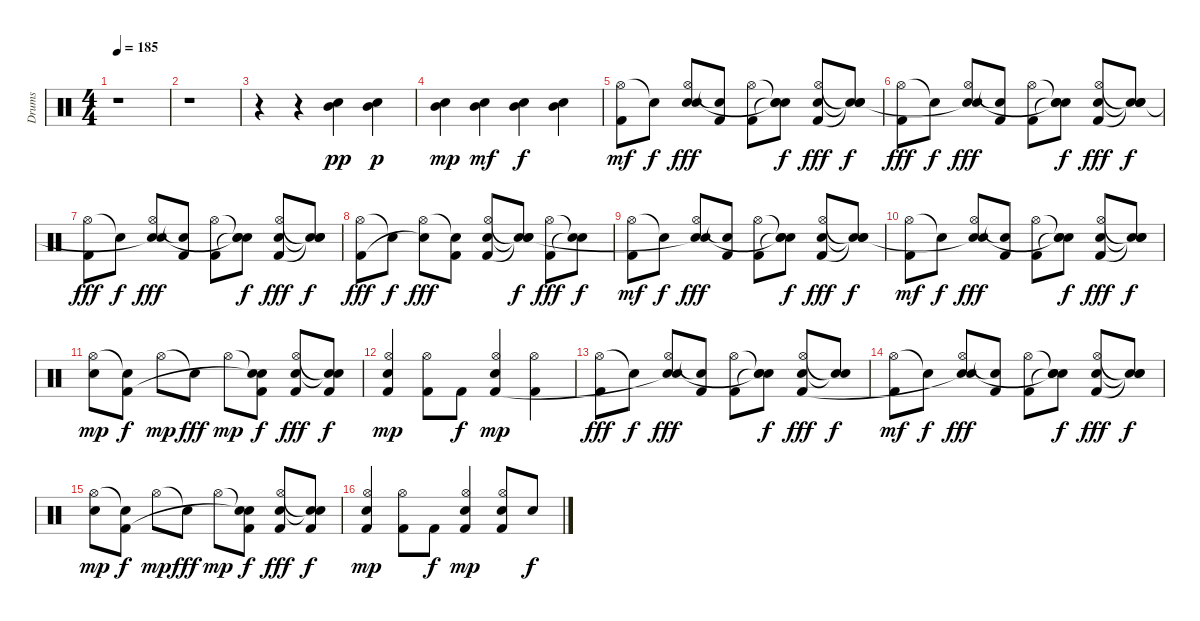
\track ("Drums" "Drums") {instrument percussion}
\staff {score}
\articulation defaults
\ts (4 4)
\tempo 185
\clef neutral
\ks c
r.1{dy f} |
r.1 |
r.4 r.4 ("Electric Snare (hit)" "Mid Tom (hit)").4{dy pp} ("Electric Snare (hit)" "Mid Tom (hit)").4{dy p} |
("Electric Snare (hit)" "Mid Tom (hit)").4{dy mp} ("Electric Snare (hit)" "Mid Tom (hit)").4{dy mf} ("Electric Snare (hit)" "Mid Tom (hit)").4{dy f} ("Electric Snare (hit)" "Mid Tom (hit)").4 |
("Hi-Hat (open)" "Kick (hit) 2").8{dy mf} "Snare (hit)"{t}.8{dy f} ("Hi-Hat (open)" "Electric Snare (hit)" "Snare (hit)").8{dy fff} ("Snare (hit)"{t} "Kick (hit) 2").8 ("Hi-Hat (open)" "Kick (hit) 2").8 ("Snare (hit)"{t} "Snare (hit)"{t} "Snare (hit)"{t}).8{dy f} ("Hi-Hat (open)" "Electric Snare (hit)" "Kick (hit) 2").8{dy fff} ("Snare (hit)"{t} "Snare (hit)"{t} "Snare (hit)"{t}).8{dy f} |
("Hi-Hat (open)" "Kick (hit) 2").8{dy fff} "Snare (hit)"{t}.8{dy f} ("Hi-Hat (open)" "Electric Snare (hit)" "Snare (hit)"{t}).8{dy fff} ("Snare (hit)"{t} "Kick (hit) 2").8 ("Hi-Hat (open)" "Kick (hit) 2").8 ("Snare (hit)"{t} "Snare (hit)"{t} "Snare (hit)"{t}).8{dy f} ("Hi-Hat (open)" "Electric Snare (hit)" "Kick (hit) 2").8{dy fff} ("Snare (hit)"{t} "Snare (hit)"{t} "Snare (hit)"{t}).8{dy f} |
("Hi-Hat (open)" "Kick (hit) 2").8{dy fff} "Snare (hit)"{t}.8{dy f} ("Hi-Hat (open)" "Electric Snare (hit)" "Snare (hit)"{t}).8{dy fff} ("Snare (hit)"{t} "Kick (hit) 2").8 ("Hi-Hat (open)" "Kick (hit) 2").8 ("Snare (hit)"{t} "Snare (hit)"{t} "Snare (hit)"{t}).8{dy f} ("Hi-Hat (open)" "Electric Snare (hit)" "Kick (hit) 2").8{dy fff} ("Snare (hit)"{t} "Snare (hit)"{t} "Snare (hit)"{t}).8{dy f} |
("Hi-Hat (open)" "Kick (hit) 2").8{dy fff} "Snare (hit)"{t}.8{dy f} ("Hi-Hat (open)" "Snare (hit)"{t}).8{dy fff} ("Snare (hit)"{t} "Kick (hit) 2").8 ("Hi-Hat (open)" "Electric Snare (hit)" "Kick (hit) 2").8 ("Snare (hit)"{t} "Snare (hit)"{t} "Snare (hit)"{t}).8{dy f} ("Hi-Hat (open)" "Kick (hit) 2").8{dy fff} ("Snare (hit)"{t} "Snare (hit)"{t}).8{dy f} |
("Hi-Hat (open)" "Kick (hit) 2").8{dy mf} "Snare (hit)"{t}.8{dy f} ("Hi-Hat (open)" "Electric Snare (hit)" "Snare (hit)"{t}).8{dy fff} ("Snare (hit)"{t} "Kick (hit) 2").8 ("Hi-Hat (open)" "Kick (hit) 2").8 ("Snare (hit)"{t} "Snare (hit)"{t} "Snare (hit)"{t}).8{dy f} ("Hi-Hat (open)" "Electric Snare (hit)" "Kick (hit) 2").8{dy fff} ("Snare (hit)"{t} "Snare (hit)"{t} "Snare (hit)"{t}).8{dy f} |
("Hi-Hat (open)" "Kick (hit) 2").8{dy mf} "Snare (hit)"{t}.8{dy f} ("Hi-Hat (open)" "Electric Snare (hit)" "Snare (hit)"{t}).8{dy fff} ("Snare (hit)"{t} "Kick (hit) 2").8 ("Hi-Hat (open)" "Kick (hit) 2").8 ("Snare (hit)"{t} "Snare (hit)"{t} "Snare (hit)"{t}).8{dy f} ("Hi-Hat (open)" "Electric Snare (hit)" "Kick (hit) 2").8{dy fff} ("Snare (hit)"{t} "Snare (hit)"{t} "Snare (hit)"{t}).8{dy f} |
("Hi-Hat (open)" "Electric Snare (hit)").8{dy mp} ("Snare (hit)"{t} "Kick (hit) 2").8{dy f} "Hi-Hat (open)".8{dy mp} "Snare (hit)"{t}.8{dy fff} "Hi-Hat (open)".8{dy mp} ("Snare (hit)"{t} "Snare (hit)"{t} "Kick (hit) 2").8{dy f} ("Hi-Hat (open)" "Electric Snare (hit)" "Kick (hit) 2").8{dy fff} ("Snare (hit)"{t} "Snare (hit)"{t} "Kick (hit) 2").8{dy f} |
("Hi-Hat (open)" "Electric Snare (hit)" "Kick (hit) 2").4{dy mp} ("Hi-Hat (open)" "Kick (hit) 2").8 "Kick (hit) 2".8{dy f} ("Hi-Hat (open)" "Electric Snare (hit)" "Kick (hit) 2").4{dy mp} ("Hi-Hat (open)" "Kick (hit) 2").4 |
("Hi-Hat (open)" "Kick (hit) 2").8{dy fff} "Snare (hit)"{t}.8{dy f} ("Hi-Hat (open)" "Electric Snare (hit)" "Snare (hit)"{t}).8{dy fff} ("Snare (hit)"{t} "Kick (hit) 2").8 ("Hi-Hat (open)" "Kick (hit) 2").8 ("Snare (hit)"{t} "Snare (hit)"{t} "Snare (hit)"{t}).8{dy f} ("Hi-Hat (open)" "Electric Snare (hit)" "Kick (hit) 2").8{dy fff} ("Snare (hit)"{t} "Snare (hit)"{t}).8{dy f} |
("Hi-Hat (open)" "Kick (hit) 2").8{dy mf} "Snare (hit)"{t}.8{dy f} ("Hi-Hat (open)" "Electric Snare (hit)" "Snare (hit)"{t}).8{dy fff} ("Snare (hit)"{t} "Kick (hit) 2").8 ("Hi-Hat (open)" "Kick (hit) 2").8 ("Snare (hit)"{t} "Snare (hit)"{t} "Snare (hit)"{t}).8{dy f} ("Hi-Hat (open)" "Electric Snare (hit)" "Kick (hit) 2").8{dy fff} ("Snare (hit)"{t} "Snare (hit)"{t} "Snare (hit)"{t}).8{dy f} |
("Hi-Hat (open)" "Electric Snare (hit)").8{dy mp} ("Snare (hit)"{t} "Kick (hit) 2").8{dy f} "Hi-Hat (open)".8{dy mp} "Snare (hit)"{t}.8{dy fff} "Hi-Hat (open)".8{dy mp} ("Snare (hit)"{t} "Snare (hit)"{t} "Kick (hit) 2").8{dy f} ("Hi-Hat (open)" "Electric Snare (hit)" "Kick (hit) 2").8{dy fff} ("Snare (hit)"{t} "Snare (hit)"{t} "Kick (hit) 2").8{dy f} |
("Hi-Hat (open)" "Electric Snare (hit)" "Kick (hit) 2").4{dy mp} ("Hi-Hat (open)" "Kick (hit) 2").8 "Kick (hit) 2".8{dy f} ("Hi-Hat (open)" "Electric Snare (hit)" "Kick (hit) 2").4{dy mp} ("Hi-Hat (open)" "Electric Snare (hit)" "Kick (hit) 2").8 "Electric Snare (hit)".8{dy f}
